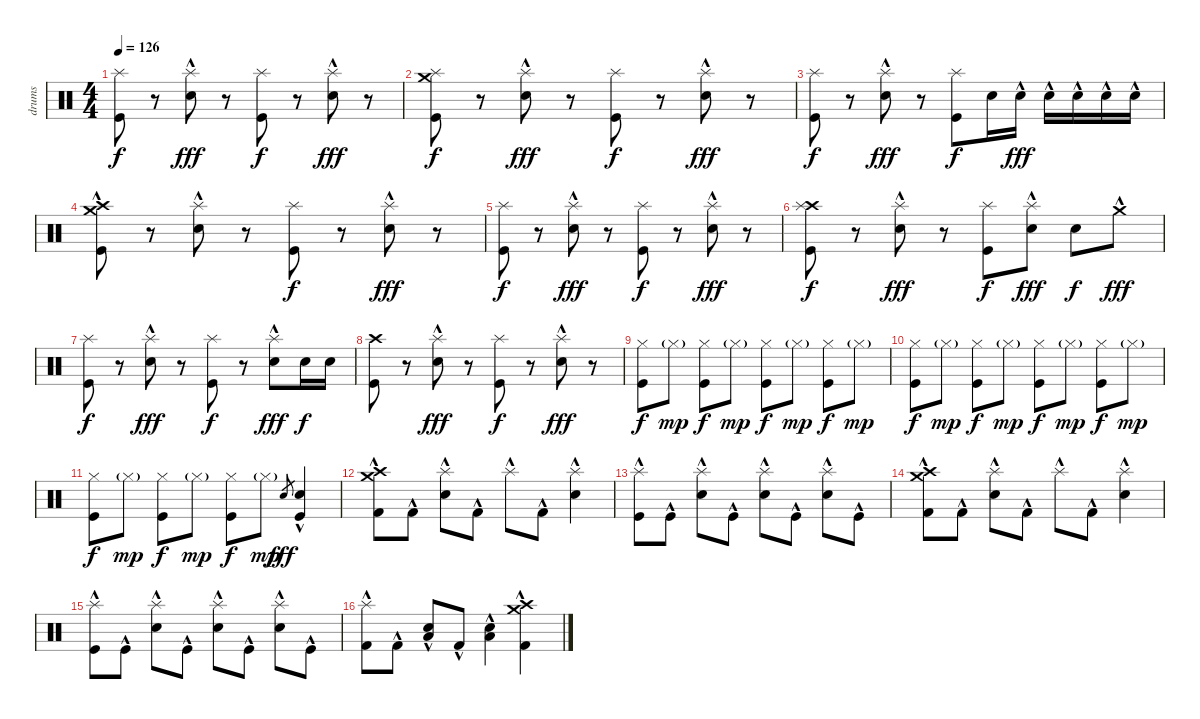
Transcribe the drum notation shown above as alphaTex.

\track ("drums" "drums") {instrument percussion}
\staff {score}
\articulation defaults
\ts (4 4)
\tempo 126
\clef neutral
\ks c
("Splash (hit)" "Kick (hit)").8{dy f} r.8 ("Splash (hit)" "Electric Snare (hit)"{hac}).8{dy fff} r.8 ("Splash (hit)" "Kick (hit)").8{dy f} r.8 ("Splash (hit)" "Electric Snare (hit)"{hac}).8{dy fff} r.8 |
("Crash medium (hit)" "Splash (hit)" "Kick (hit)").8{dy f} r.8 ("Splash (hit)" "Electric Snare (hit)"{hac}).8{dy fff} r.8 ("Splash (hit)" "Kick (hit)").8{dy f} r.8 ("Splash (hit)" "Electric Snare (hit)"{hac}).8{dy fff} r.8 |
("Splash (hit)" "Kick (hit)").8{dy f} r.8 ("Splash (hit)" "Electric Snare (hit)"{hac}).8{dy fff} r.8 ("Splash (hit)" "Kick (hit)").8{dy f} "Electric Snare (hit)".16 "Electric Snare (hit)"{hac}.16{dy fff} "Electric Snare (hit)"{hac}.16 "Electric Snare (hit)"{hac}.16 "Electric Snare (hit)"{hac}.16 "Electric Snare (hit)"{hac}.16 |
("Crash medium (hit)"{hac} "Crash high (hit)"{hac} "Kick (hit)"{hac}).8 r.8 ("Splash (hit)" "Electric Snare (hit)"{hac}).8 r.8 ("Splash (hit)" "Kick (hit)").8{dy f} r.8 ("Splash (hit)" "Electric Snare (hit)"{hac}).8{dy fff} r.8 |
("Splash (hit)" "Kick (hit)").8{dy f} r.8 ("Splash (hit)" "Electric Snare (hit)"{hac}).8{dy fff} r.8 ("Splash (hit)" "Kick (hit)").8{dy f} r.8 ("Splash (hit)" "Electric Snare (hit)"{hac}).8{dy fff} r.8 |
("Crash high (hit)" "Splash (hit)" "Kick (hit)").8{dy f} r.8 ("Splash (hit)" "Electric Snare (hit)"{hac}).8{dy fff} r.8 ("Splash (hit)" "Kick (hit)").8{dy f} ("Splash (hit)" "Electric Snare (hit)"{hac}).8{dy fff} "Electric Snare (hit)".8{dy f} "Crash medium (hit)"{hac}.8{dy fff} |
("Splash (hit)" "Kick (hit)").8{dy f} r.8 ("Splash (hit)" "Electric Snare (hit)"{hac}).8{dy fff} r.8 ("Splash (hit)" "Kick (hit)").8{dy f} r.8 ("Splash (hit)" "Electric Snare (hit)"{hac}).8{dy fff} "Electric Snare (hit)".16{dy f} "Electric Snare (hit)".16 |
("Crash high (hit)" "Kick (hit)").8 r.8 ("Splash (hit)" "Electric Snare (hit)"{hac}).8{dy fff} r.8 ("Splash (hit)" "Kick (hit)").8{dy f} r.8 ("Splash (hit)" "Electric Snare (hit)"{hac}).8{dy fff} r.8 |
("Hi-Hat (closed)" "Kick (hit)").8{dy f} "Hi-Hat (closed)"{g}.8{dy mp} ("Hi-Hat (closed)" "Kick (hit)").8{dy f} "Hi-Hat (closed)"{g}.8{dy mp} ("Hi-Hat (closed)" "Kick (hit)").8{dy f} "Hi-Hat (closed)"{g}.8{dy mp} ("Hi-Hat (closed)" "Kick (hit)").8{dy f} "Hi-Hat (closed)"{g}.8{dy mp} |
("Hi-Hat (closed)" "Kick (hit)").8{dy f} "Hi-Hat (closed)"{g}.8{dy mp} ("Hi-Hat (closed)" "Kick (hit)").8{dy f} "Hi-Hat (closed)"{g}.8{dy mp} ("Hi-Hat (closed)" "Kick (hit)").8{dy f} "Hi-Hat (closed)"{g}.8{dy mp} ("Hi-Hat (closed)" "Kick (hit)").8{dy f} "Hi-Hat (closed)"{g}.8{dy mp} |
("Hi-Hat (closed)" "Kick (hit)").8{dy f} "Hi-Hat (closed)"{g}.8{dy mp} ("Hi-Hat (closed)" "Kick (hit)").8{dy f} "Hi-Hat (closed)"{g}.8{dy mp} ("Hi-Hat (closed)" "Kick (hit)").8{dy f} "Hi-Hat (closed)"{g}.8{dy mp} "Electric Snare (hit)".8{gr dy fff} ("Electric Snare (hit)"{hac} "Kick (hit)").4 |
("Crash high (hit)"{hac} "Crash medium (hit)"{hac} "Kick (hit) 2"{hac}).8 "Kick (hit) 2"{hac}.8 ("Electric Snare (hit)"{hac} "Splash (hit)"{hac}).8 "Kick (hit) 2"{hac}.8 "Splash (hit)"{hac}.8 "Kick (hit) 2"{hac}.8 ("Electric Snare (hit)"{hac} "Splash (hit)"{hac}).4 |
("Splash (hit)"{hac} "Kick (hit)"{hac}).8 "Kick (hit)"{hac}.8 ("Electric Snare (hit)"{hac} "Splash (hit)"{hac}).8 "Kick (hit)"{hac}.8 ("Electric Snare (hit)"{hac} "Splash (hit)"{hac}).8 "Kick (hit)"{hac}.8 ("Electric Snare (hit)"{hac} "Splash (hit)"{hac}).8 "Kick (hit)"{hac}.8 |
("Crash high (hit)"{hac} "Crash medium (hit)"{hac} "Kick (hit) 2"{hac}).8 "Kick (hit) 2"{hac}.8 ("Electric Snare (hit)"{hac} "Splash (hit)"{hac}).8 "Kick (hit) 2"{hac}.8 "Splash (hit)"{hac}.8 "Kick (hit) 2"{hac}.8 ("Electric Snare (hit)"{hac} "Splash (hit)"{hac}).4 |
("Splash (hit)"{hac} "Kick (hit)"{hac}).8 "Kick (hit)"{hac}.8 ("Electric Snare (hit)"{hac} "Splash (hit)"{hac}).8 "Kick (hit)"{hac}.8 ("Electric Snare (hit)"{hac} "Splash (hit)"{hac}).8 "Kick (hit)"{hac}.8 ("Electric Snare (hit)"{hac} "Splash (hit)"{hac}).8 "Kick (hit)"{hac}.8 |
("Splash (hit)"{hac} "Kick (hit) 2"{hac}).8 "Kick (hit) 2"{hac}.8 ("Electric Snare (hit)"{hac} "Low Floor Tom (hit)"{hac}).8 "Kick (hit) 2"{hac}.8 ("Electric Snare (hit)"{hac} "Low Tom (hit)"{hac}).4 ("Crash high (hit)"{hac} "Crash medium (hit)"{hac} "Kick (hit) 2"{hac}).4
